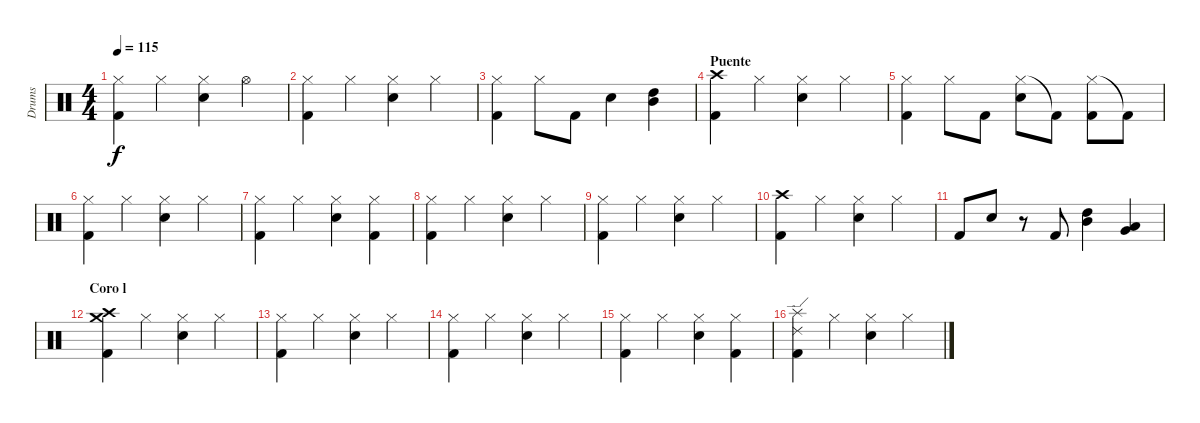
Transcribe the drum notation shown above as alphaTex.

\track ("Drums" "Drums") {instrument percussion}
\staff {score}
\articulation defaults
\ts (4 4)
\tempo 115
\clef neutral
\ks c
("Hi-Hat (closed)" "Kick (hit) 2").4{dy f} "Hi-Hat (closed)".4 ("Hi-Hat (closed)" "Snare (hit) 2").4 "Hi-Hat (open)".4 |
("Hi-Hat (closed)" "Kick (hit) 2").4 "Hi-Hat (closed)".4 ("Hi-Hat (closed)" "Snare (hit) 2").4 "Hi-Hat (closed)".4 |
("Hi-Hat (closed)" "Kick (hit) 2").4 "Hi-Hat (closed)".8 "Kick (hit) 2".8 "Snare (hit) 2".4 ("High Tom (hit)" "Mid Tom (hit)").4 |
\section ("" "Puente ")
("Crash high (hit)" "Kick (hit) 2").4 "Hi-Hat (closed)".4 ("Hi-Hat (closed)" "Snare (hit) 2").4 "Hi-Hat (closed)".4 |
("Hi-Hat (closed)" "Kick (hit) 2").4 "Hi-Hat (closed)".8 "Kick (hit) 2".8 ("Hi-Hat (closed)" "Snare (hit) 2").8 "Kick (hit) 2"{t}.8 ("Hi-Hat (closed)" "Kick (hit) 2").8 "Kick (hit) 2"{t}.8 |
("Hi-Hat (closed)" "Kick (hit) 2").4 "Hi-Hat (closed)".4 ("Hi-Hat (closed)" "Snare (hit) 2").4 "Hi-Hat (closed)".4 |
("Hi-Hat (closed)" "Kick (hit) 2").4 "Hi-Hat (closed)".4 ("Hi-Hat (closed)" "Snare (hit) 2").4 ("Hi-Hat (closed)" "Kick (hit) 2").4 |
("Hi-Hat (closed)" "Kick (hit) 2").4 "Hi-Hat (closed)".4 ("Hi-Hat (closed)" "Snare (hit) 2").4 "Hi-Hat (closed)".4 |
("Hi-Hat (closed)" "Kick (hit) 2").4 "Hi-Hat (closed)".4 ("Hi-Hat (closed)" "Snare (hit) 2").4 "Hi-Hat (closed)".4 |
("Crash high (hit)" "Kick (hit) 2").4 "Hi-Hat (closed)".4 ("Hi-Hat (closed)" "Snare (hit) 2").4 "Hi-Hat (closed)".4 |
"Kick (hit) 2".8 "Snare (hit) 2".8 r.8 "Kick (hit) 2".8 ("Mid Tom (hit)" "High Tom (hit)").4 ("Very Low Tom (hit)" "Low Tom (hit)").4 |
\section ("" "Coro l")
("Crash high (hit)" "Crash medium (hit)" "Kick (hit) 2").4 "Hi-Hat (closed)".4 ("Hi-Hat (closed)" "Snare (hit) 2").4 "Hi-Hat (closed)".4 |
("Hi-Hat (closed)" "Kick (hit) 2").4 "Hi-Hat (closed)".4 ("Hi-Hat (closed)" "Snare (hit) 2").4 "Hi-Hat (closed)".4 |
("Hi-Hat (closed)" "Kick (hit) 2").4 "Hi-Hat (closed)".4 ("Hi-Hat (closed)" "Snare (hit) 2").4 "Hi-Hat (closed)".4 |
("Hi-Hat (closed)" "Kick (hit) 2").4 "Hi-Hat (closed)".4 ("Hi-Hat (closed)" "Snare (hit) 2").4 ("Hi-Hat (closed)" "Kick (hit) 2").4 |
("Ride (edge) 2" "Splash (hit)" "Kick (hit) 2").4 "Hi-Hat (closed)".4 ("Hi-Hat (closed)" "Snare (hit) 2").4 "Hi-Hat (closed)".4
